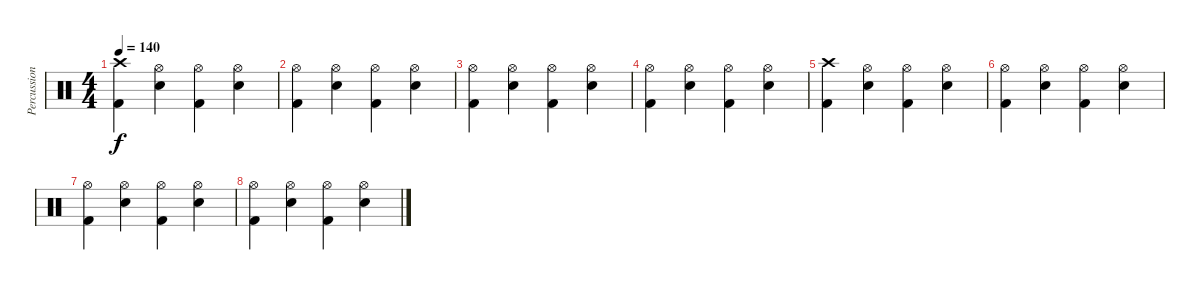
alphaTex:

\track ("Percussions" "Percussion") {instrument percussion}
\staff {score}
\articulation defaults
\ts (4 4)
\tempo 140
\clef neutral
\ks c
("Crash high (hit)" "Kick (hit) 2").4{dy f} ("Hi-Hat (open)" "Snare (hit) 2").4 ("Hi-Hat (open)" "Kick (hit) 2").4 ("Hi-Hat (open)" "Snare (hit) 2").4 |
("Hi-Hat (open)" "Kick (hit) 2").4 ("Hi-Hat (open)" "Snare (hit) 2").4 ("Hi-Hat (open)" "Kick (hit) 2").4 ("Hi-Hat (open)" "Snare (hit) 2").4 |
("Hi-Hat (open)" "Kick (hit) 2").4 ("Hi-Hat (open)" "Snare (hit) 2").4 ("Hi-Hat (open)" "Kick (hit) 2").4 ("Hi-Hat (open)" "Snare (hit) 2").4 |
("Hi-Hat (open)" "Kick (hit) 2").4 ("Hi-Hat (open)" "Snare (hit) 2").4 ("Hi-Hat (open)" "Kick (hit) 2").4 ("Hi-Hat (open)" "Snare (hit) 2").4 |
("Crash high (hit)" "Kick (hit) 2").4 ("Hi-Hat (open)" "Snare (hit) 2").4 ("Hi-Hat (open)" "Kick (hit) 2").4 ("Hi-Hat (open)" "Snare (hit) 2").4 |
("Hi-Hat (open)" "Kick (hit) 2").4 ("Hi-Hat (open)" "Snare (hit) 2").4 ("Hi-Hat (open)" "Kick (hit) 2").4 ("Hi-Hat (open)" "Snare (hit) 2").4 |
("Hi-Hat (open)" "Kick (hit) 2").4 ("Hi-Hat (open)" "Snare (hit) 2").4 ("Hi-Hat (open)" "Kick (hit) 2").4 ("Hi-Hat (open)" "Snare (hit) 2").4 |
("Hi-Hat (open)" "Kick (hit) 2").4 ("Hi-Hat (open)" "Snare (hit) 2").4 ("Hi-Hat (open)" "Kick (hit) 2").4 ("Hi-Hat (open)" "Snare (hit) 2").4
